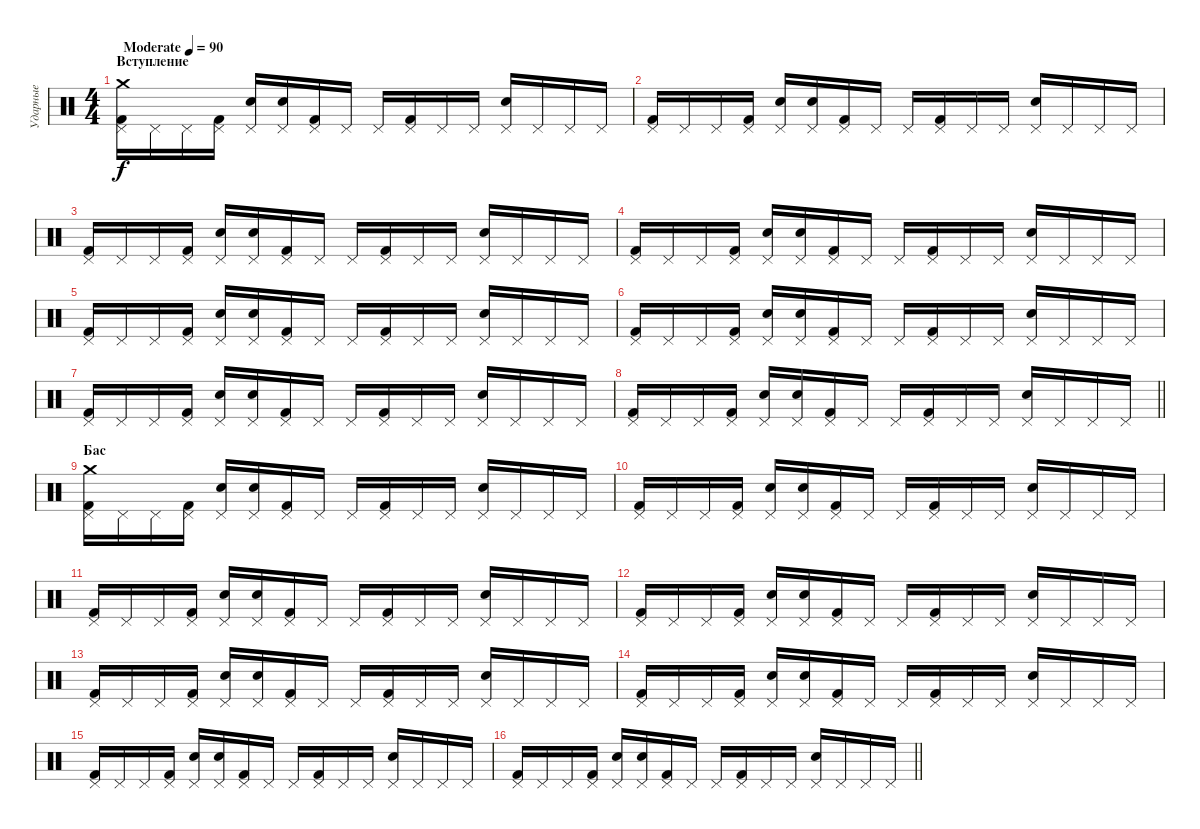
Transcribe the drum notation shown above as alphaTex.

\track ("Ударные" "Ударные") {instrument percussion}
\staff {score}
\articulation defaults
\ts (4 4)
\section ("" "Вступление")
\tempo (90 "Moderate")
\clef neutral
\ks c
("Pedal Hi-Hat (hit)" "Kick (hit) 2" "Crash medium (hit)").16{dy f} "Pedal Hi-Hat (hit)".16 "Pedal Hi-Hat (hit)".16 ("Pedal Hi-Hat (hit)" "Kick (hit) 2").16 ("Pedal Hi-Hat (hit)" "Electric Snare (hit)").16 ("Pedal Hi-Hat (hit)" "Electric Snare (hit)").16 ("Pedal Hi-Hat (hit)" "Kick (hit) 2").16 "Pedal Hi-Hat (hit)".16 "Pedal Hi-Hat (hit)".16 ("Pedal Hi-Hat (hit)" "Kick (hit) 2").16 "Pedal Hi-Hat (hit)".16 "Pedal Hi-Hat (hit)".16 ("Pedal Hi-Hat (hit)" "Electric Snare (hit)").16 "Pedal Hi-Hat (hit)".16 "Pedal Hi-Hat (hit)".16 "Pedal Hi-Hat (hit)".16 |
("Pedal Hi-Hat (hit)" "Kick (hit) 2").16 "Pedal Hi-Hat (hit)".16 "Pedal Hi-Hat (hit)".16 ("Pedal Hi-Hat (hit)" "Kick (hit) 2").16 ("Pedal Hi-Hat (hit)" "Electric Snare (hit)").16 ("Pedal Hi-Hat (hit)" "Electric Snare (hit)").16 ("Pedal Hi-Hat (hit)" "Kick (hit) 2").16 "Pedal Hi-Hat (hit)".16 "Pedal Hi-Hat (hit)".16 ("Pedal Hi-Hat (hit)" "Kick (hit) 2").16 "Pedal Hi-Hat (hit)".16 "Pedal Hi-Hat (hit)".16 ("Pedal Hi-Hat (hit)" "Electric Snare (hit)").16 "Pedal Hi-Hat (hit)".16 "Pedal Hi-Hat (hit)".16 "Pedal Hi-Hat (hit)".16 |
("Pedal Hi-Hat (hit)" "Kick (hit) 2").16 "Pedal Hi-Hat (hit)".16 "Pedal Hi-Hat (hit)".16 ("Pedal Hi-Hat (hit)" "Kick (hit) 2").16 ("Pedal Hi-Hat (hit)" "Electric Snare (hit)").16 ("Pedal Hi-Hat (hit)" "Electric Snare (hit)").16 ("Pedal Hi-Hat (hit)" "Kick (hit) 2").16 "Pedal Hi-Hat (hit)".16 "Pedal Hi-Hat (hit)".16 ("Pedal Hi-Hat (hit)" "Kick (hit) 2").16 "Pedal Hi-Hat (hit)".16 "Pedal Hi-Hat (hit)".16 ("Pedal Hi-Hat (hit)" "Electric Snare (hit)").16 "Pedal Hi-Hat (hit)".16 "Pedal Hi-Hat (hit)".16 "Pedal Hi-Hat (hit)".16 |
("Pedal Hi-Hat (hit)" "Kick (hit) 2").16 "Pedal Hi-Hat (hit)".16 "Pedal Hi-Hat (hit)".16 ("Pedal Hi-Hat (hit)" "Kick (hit) 2").16 ("Pedal Hi-Hat (hit)" "Electric Snare (hit)").16 ("Pedal Hi-Hat (hit)" "Electric Snare (hit)").16 ("Pedal Hi-Hat (hit)" "Kick (hit) 2").16 "Pedal Hi-Hat (hit)".16 "Pedal Hi-Hat (hit)".16 ("Pedal Hi-Hat (hit)" "Kick (hit) 2").16 "Pedal Hi-Hat (hit)".16 "Pedal Hi-Hat (hit)".16 ("Pedal Hi-Hat (hit)" "Electric Snare (hit)").16 "Pedal Hi-Hat (hit)".16 "Pedal Hi-Hat (hit)".16 "Pedal Hi-Hat (hit)".16 |
("Pedal Hi-Hat (hit)" "Kick (hit) 2").16 "Pedal Hi-Hat (hit)".16 "Pedal Hi-Hat (hit)".16 ("Pedal Hi-Hat (hit)" "Kick (hit) 2").16 ("Pedal Hi-Hat (hit)" "Electric Snare (hit)").16 ("Pedal Hi-Hat (hit)" "Electric Snare (hit)").16 ("Pedal Hi-Hat (hit)" "Kick (hit) 2").16 "Pedal Hi-Hat (hit)".16 "Pedal Hi-Hat (hit)".16 ("Pedal Hi-Hat (hit)" "Kick (hit) 2").16 "Pedal Hi-Hat (hit)".16 "Pedal Hi-Hat (hit)".16 ("Pedal Hi-Hat (hit)" "Electric Snare (hit)").16 "Pedal Hi-Hat (hit)".16 "Pedal Hi-Hat (hit)".16 "Pedal Hi-Hat (hit)".16 |
("Pedal Hi-Hat (hit)" "Kick (hit) 2").16 "Pedal Hi-Hat (hit)".16 "Pedal Hi-Hat (hit)".16 ("Pedal Hi-Hat (hit)" "Kick (hit) 2").16 ("Pedal Hi-Hat (hit)" "Electric Snare (hit)").16 ("Pedal Hi-Hat (hit)" "Electric Snare (hit)").16 ("Pedal Hi-Hat (hit)" "Kick (hit) 2").16 "Pedal Hi-Hat (hit)".16 "Pedal Hi-Hat (hit)".16 ("Pedal Hi-Hat (hit)" "Kick (hit) 2").16 "Pedal Hi-Hat (hit)".16 "Pedal Hi-Hat (hit)".16 ("Pedal Hi-Hat (hit)" "Electric Snare (hit)").16 "Pedal Hi-Hat (hit)".16 "Pedal Hi-Hat (hit)".16 "Pedal Hi-Hat (hit)".16 |
("Pedal Hi-Hat (hit)" "Kick (hit) 2").16 "Pedal Hi-Hat (hit)".16 "Pedal Hi-Hat (hit)".16 ("Pedal Hi-Hat (hit)" "Kick (hit) 2").16 ("Pedal Hi-Hat (hit)" "Electric Snare (hit)").16 ("Pedal Hi-Hat (hit)" "Electric Snare (hit)").16 ("Pedal Hi-Hat (hit)" "Kick (hit) 2").16 "Pedal Hi-Hat (hit)".16 "Pedal Hi-Hat (hit)".16 ("Pedal Hi-Hat (hit)" "Kick (hit) 2").16 "Pedal Hi-Hat (hit)".16 "Pedal Hi-Hat (hit)".16 ("Pedal Hi-Hat (hit)" "Electric Snare (hit)").16 "Pedal Hi-Hat (hit)".16 "Pedal Hi-Hat (hit)".16 "Pedal Hi-Hat (hit)".16 |
\barLineRight lightlight
("Pedal Hi-Hat (hit)" "Kick (hit) 2").16 "Pedal Hi-Hat (hit)".16 "Pedal Hi-Hat (hit)".16 ("Pedal Hi-Hat (hit)" "Kick (hit) 2").16 ("Pedal Hi-Hat (hit)" "Electric Snare (hit)").16 ("Pedal Hi-Hat (hit)" "Electric Snare (hit)").16 ("Pedal Hi-Hat (hit)" "Kick (hit) 2").16 "Pedal Hi-Hat (hit)".16 "Pedal Hi-Hat (hit)".16 ("Pedal Hi-Hat (hit)" "Kick (hit) 2").16 "Pedal Hi-Hat (hit)".16 "Pedal Hi-Hat (hit)".16 ("Pedal Hi-Hat (hit)" "Electric Snare (hit)").16 "Pedal Hi-Hat (hit)".16 "Pedal Hi-Hat (hit)".16 "Pedal Hi-Hat (hit)".16 |
\section ("" "Бас")
("Pedal Hi-Hat (hit)" "Kick (hit) 2" "Crash medium (hit)").16 "Pedal Hi-Hat (hit)".16 "Pedal Hi-Hat (hit)".16 ("Pedal Hi-Hat (hit)" "Kick (hit) 2").16 ("Pedal Hi-Hat (hit)" "Electric Snare (hit)").16 ("Pedal Hi-Hat (hit)" "Electric Snare (hit)").16 ("Pedal Hi-Hat (hit)" "Kick (hit) 2").16 "Pedal Hi-Hat (hit)".16 "Pedal Hi-Hat (hit)".16 ("Pedal Hi-Hat (hit)" "Kick (hit) 2").16 "Pedal Hi-Hat (hit)".16 "Pedal Hi-Hat (hit)".16 ("Pedal Hi-Hat (hit)" "Electric Snare (hit)").16 "Pedal Hi-Hat (hit)".16 "Pedal Hi-Hat (hit)".16 "Pedal Hi-Hat (hit)".16 |
("Pedal Hi-Hat (hit)" "Kick (hit) 2").16 "Pedal Hi-Hat (hit)".16 "Pedal Hi-Hat (hit)".16 ("Pedal Hi-Hat (hit)" "Kick (hit) 2").16 ("Pedal Hi-Hat (hit)" "Electric Snare (hit)").16 ("Pedal Hi-Hat (hit)" "Electric Snare (hit)").16 ("Pedal Hi-Hat (hit)" "Kick (hit) 2").16 "Pedal Hi-Hat (hit)".16 "Pedal Hi-Hat (hit)".16 ("Pedal Hi-Hat (hit)" "Kick (hit) 2").16 "Pedal Hi-Hat (hit)".16 "Pedal Hi-Hat (hit)".16 ("Pedal Hi-Hat (hit)" "Electric Snare (hit)").16 "Pedal Hi-Hat (hit)".16 "Pedal Hi-Hat (hit)".16 "Pedal Hi-Hat (hit)".16 |
("Pedal Hi-Hat (hit)" "Kick (hit) 2").16 "Pedal Hi-Hat (hit)".16 "Pedal Hi-Hat (hit)".16 ("Pedal Hi-Hat (hit)" "Kick (hit) 2").16 ("Pedal Hi-Hat (hit)" "Electric Snare (hit)").16 ("Pedal Hi-Hat (hit)" "Electric Snare (hit)").16 ("Pedal Hi-Hat (hit)" "Kick (hit) 2").16 "Pedal Hi-Hat (hit)".16 "Pedal Hi-Hat (hit)".16 ("Pedal Hi-Hat (hit)" "Kick (hit) 2").16 "Pedal Hi-Hat (hit)".16 "Pedal Hi-Hat (hit)".16 ("Pedal Hi-Hat (hit)" "Electric Snare (hit)").16 "Pedal Hi-Hat (hit)".16 "Pedal Hi-Hat (hit)".16 "Pedal Hi-Hat (hit)".16 |
("Pedal Hi-Hat (hit)" "Kick (hit) 2").16 "Pedal Hi-Hat (hit)".16 "Pedal Hi-Hat (hit)".16 ("Pedal Hi-Hat (hit)" "Kick (hit) 2").16 ("Pedal Hi-Hat (hit)" "Electric Snare (hit)").16 ("Pedal Hi-Hat (hit)" "Electric Snare (hit)").16 ("Pedal Hi-Hat (hit)" "Kick (hit) 2").16 "Pedal Hi-Hat (hit)".16 "Pedal Hi-Hat (hit)".16 ("Pedal Hi-Hat (hit)" "Kick (hit) 2").16 "Pedal Hi-Hat (hit)".16 "Pedal Hi-Hat (hit)".16 ("Pedal Hi-Hat (hit)" "Electric Snare (hit)").16 "Pedal Hi-Hat (hit)".16 "Pedal Hi-Hat (hit)".16 "Pedal Hi-Hat (hit)".16 |
("Pedal Hi-Hat (hit)" "Kick (hit) 2").16 "Pedal Hi-Hat (hit)".16 "Pedal Hi-Hat (hit)".16 ("Pedal Hi-Hat (hit)" "Kick (hit) 2").16 ("Pedal Hi-Hat (hit)" "Electric Snare (hit)").16 ("Pedal Hi-Hat (hit)" "Electric Snare (hit)").16 ("Pedal Hi-Hat (hit)" "Kick (hit) 2").16 "Pedal Hi-Hat (hit)".16 "Pedal Hi-Hat (hit)".16 ("Pedal Hi-Hat (hit)" "Kick (hit) 2").16 "Pedal Hi-Hat (hit)".16 "Pedal Hi-Hat (hit)".16 ("Pedal Hi-Hat (hit)" "Electric Snare (hit)").16 "Pedal Hi-Hat (hit)".16 "Pedal Hi-Hat (hit)".16 "Pedal Hi-Hat (hit)".16 |
("Pedal Hi-Hat (hit)" "Kick (hit) 2").16 "Pedal Hi-Hat (hit)".16 "Pedal Hi-Hat (hit)".16 ("Pedal Hi-Hat (hit)" "Kick (hit) 2").16 ("Pedal Hi-Hat (hit)" "Electric Snare (hit)").16 ("Pedal Hi-Hat (hit)" "Electric Snare (hit)").16 ("Pedal Hi-Hat (hit)" "Kick (hit) 2").16 "Pedal Hi-Hat (hit)".16 "Pedal Hi-Hat (hit)".16 ("Pedal Hi-Hat (hit)" "Kick (hit) 2").16 "Pedal Hi-Hat (hit)".16 "Pedal Hi-Hat (hit)".16 ("Pedal Hi-Hat (hit)" "Electric Snare (hit)").16 "Pedal Hi-Hat (hit)".16 "Pedal Hi-Hat (hit)".16 "Pedal Hi-Hat (hit)".16 |
("Pedal Hi-Hat (hit)" "Kick (hit) 2").16 "Pedal Hi-Hat (hit)".16 "Pedal Hi-Hat (hit)".16 ("Pedal Hi-Hat (hit)" "Kick (hit) 2").16 ("Pedal Hi-Hat (hit)" "Electric Snare (hit)").16 ("Pedal Hi-Hat (hit)" "Electric Snare (hit)").16 ("Pedal Hi-Hat (hit)" "Kick (hit) 2").16 "Pedal Hi-Hat (hit)".16 "Pedal Hi-Hat (hit)".16 ("Pedal Hi-Hat (hit)" "Kick (hit) 2").16 "Pedal Hi-Hat (hit)".16 "Pedal Hi-Hat (hit)".16 ("Pedal Hi-Hat (hit)" "Electric Snare (hit)").16 "Pedal Hi-Hat (hit)".16 "Pedal Hi-Hat (hit)".16 "Pedal Hi-Hat (hit)".16 |
\barLineRight lightlight
("Pedal Hi-Hat (hit)" "Kick (hit) 2").16 "Pedal Hi-Hat (hit)".16 "Pedal Hi-Hat (hit)".16 ("Pedal Hi-Hat (hit)" "Kick (hit) 2").16 ("Pedal Hi-Hat (hit)" "Electric Snare (hit)").16 ("Pedal Hi-Hat (hit)" "Electric Snare (hit)").16 ("Pedal Hi-Hat (hit)" "Kick (hit) 2").16 "Pedal Hi-Hat (hit)".16 "Pedal Hi-Hat (hit)".16 ("Pedal Hi-Hat (hit)" "Kick (hit) 2").16 "Pedal Hi-Hat (hit)".16 "Pedal Hi-Hat (hit)".16 ("Pedal Hi-Hat (hit)" "Electric Snare (hit)").16 "Pedal Hi-Hat (hit)".16 "Pedal Hi-Hat (hit)".16 "Pedal Hi-Hat (hit)".16
